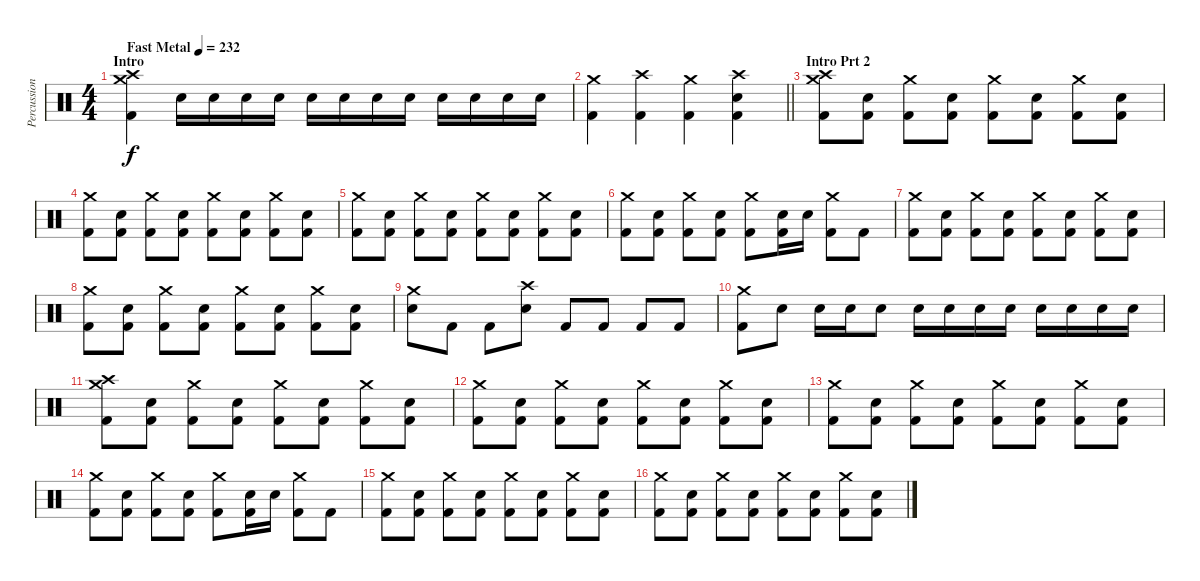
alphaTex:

\track ("Percussion" "Percussion") {instrument percussion}
\staff {score}
\articulation defaults
\ts (4 4)
\section ("" "Intro")
\tempo (232 "Fast Metal")
\clef neutral
\ks c
("Crash medium (hit)" "Crash high (hit)" "Kick (hit) 2").4{dy f} "Electric Snare (hit)".16 "Electric Snare (hit)".16 "Electric Snare (hit)".16 "Electric Snare (hit)".16 "Electric Snare (hit)".16 "Electric Snare (hit)".16 "Electric Snare (hit)".16 "Electric Snare (hit)".16 "Electric Snare (hit)".16 "Electric Snare (hit)".16 "Electric Snare (hit)".16 "Electric Snare (hit)".16 |
\barLineRight lightlight
("Crash medium (hit)" "Kick (hit) 2").4 ("Crash high (hit)" "Kick (hit) 2").4 ("Crash medium (hit)" "Kick (hit) 2").4 ("Crash high (hit)" "Electric Snare (hit)" "Kick (hit) 2").4 |
\section ("" "Intro Prt 2")
("Crash medium (hit)" "Crash high (hit)" "Kick (hit) 2").8 ("Electric Snare (hit)" "Kick (hit) 2").8 ("Crash medium (hit)" "Kick (hit) 2").8 ("Electric Snare (hit)" "Kick (hit) 2").8 ("Crash medium (hit)" "Kick (hit) 2").8 ("Electric Snare (hit)" "Kick (hit) 2").8 ("Crash medium (hit)" "Kick (hit) 2").8 ("Electric Snare (hit)" "Kick (hit) 2").8 |
("Crash medium (hit)" "Kick (hit) 2").8 ("Electric Snare (hit)" "Kick (hit) 2").8 ("Crash medium (hit)" "Kick (hit) 2").8 ("Electric Snare (hit)" "Kick (hit) 2").8 ("Crash medium (hit)" "Kick (hit) 2").8 ("Electric Snare (hit)" "Kick (hit) 2").8 ("Crash medium (hit)" "Kick (hit) 2").8 ("Electric Snare (hit)" "Kick (hit) 2").8 |
("Crash medium (hit)" "Kick (hit) 2").8 ("Electric Snare (hit)" "Kick (hit) 2").8 ("Crash medium (hit)" "Kick (hit) 2").8 ("Electric Snare (hit)" "Kick (hit) 2").8 ("Crash medium (hit)" "Kick (hit) 2").8 ("Electric Snare (hit)" "Kick (hit) 2").8 ("Crash medium (hit)" "Kick (hit) 2").8 ("Electric Snare (hit)" "Kick (hit) 2").8 |
("Crash medium (hit)" "Kick (hit) 2").8 ("Electric Snare (hit)" "Kick (hit) 2").8 ("Crash medium (hit)" "Kick (hit) 2").8 ("Electric Snare (hit)" "Kick (hit) 2").8 ("Crash medium (hit)" "Kick (hit) 2").8 ("Electric Snare (hit)" "Kick (hit) 2").16 "Electric Snare (hit)".16 ("Crash medium (hit)" "Kick (hit) 2").8 "Kick (hit) 2".8 |
("Crash medium (hit)" "Kick (hit) 2").8 ("Electric Snare (hit)" "Kick (hit) 2").8 ("Crash medium (hit)" "Kick (hit) 2").8 ("Electric Snare (hit)" "Kick (hit) 2").8 ("Crash medium (hit)" "Kick (hit) 2").8 ("Electric Snare (hit)" "Kick (hit) 2").8 ("Crash medium (hit)" "Kick (hit) 2").8 ("Electric Snare (hit)" "Kick (hit) 2").8 |
("Crash medium (hit)" "Kick (hit) 2").8 ("Electric Snare (hit)" "Kick (hit) 2").8 ("Crash medium (hit)" "Kick (hit) 2").8 ("Electric Snare (hit)" "Kick (hit) 2").8 ("Crash medium (hit)" "Kick (hit) 2").8 ("Electric Snare (hit)" "Kick (hit) 2").8 ("Crash medium (hit)" "Kick (hit) 2").8 ("Electric Snare (hit)" "Kick (hit) 2").8 |
("Crash medium (hit)" "Electric Snare (hit)").8 "Kick (hit) 2".8 "Kick (hit) 2".8 ("Crash high (hit)" "Electric Snare (hit)").8 "Kick (hit) 2".8 "Kick (hit) 2".8 "Kick (hit) 2".8 "Kick (hit) 2".8 |
("Crash medium (hit)" "Kick (hit) 2").8 "Electric Snare (hit)".8 "Electric Snare (hit)".16 "Electric Snare (hit)".16 "Electric Snare (hit)".8 "Electric Snare (hit)".16 "Electric Snare (hit)".16 "Electric Snare (hit)".16 "Electric Snare (hit)".16 "Electric Snare (hit)".16 "Electric Snare (hit)".16 "Electric Snare (hit)".16 "Electric Snare (hit)".16 |
("Crash medium (hit)" "Crash high (hit)" "Kick (hit) 2").8 ("Electric Snare (hit)" "Kick (hit) 2").8 ("Crash medium (hit)" "Kick (hit) 2").8 ("Electric Snare (hit)" "Kick (hit) 2").8 ("Crash medium (hit)" "Kick (hit) 2").8 ("Electric Snare (hit)" "Kick (hit) 2").8 ("Crash medium (hit)" "Kick (hit) 2").8 ("Electric Snare (hit)" "Kick (hit) 2").8 |
("Crash medium (hit)" "Kick (hit) 2").8 ("Electric Snare (hit)" "Kick (hit) 2").8 ("Crash medium (hit)" "Kick (hit) 2").8 ("Electric Snare (hit)" "Kick (hit) 2").8 ("Crash medium (hit)" "Kick (hit) 2").8 ("Electric Snare (hit)" "Kick (hit) 2").8 ("Crash medium (hit)" "Kick (hit) 2").8 ("Electric Snare (hit)" "Kick (hit) 2").8 |
("Crash medium (hit)" "Kick (hit) 2").8 ("Electric Snare (hit)" "Kick (hit) 2").8 ("Crash medium (hit)" "Kick (hit) 2").8 ("Electric Snare (hit)" "Kick (hit) 2").8 ("Crash medium (hit)" "Kick (hit) 2").8 ("Electric Snare (hit)" "Kick (hit) 2").8 ("Crash medium (hit)" "Kick (hit) 2").8 ("Electric Snare (hit)" "Kick (hit) 2").8 |
("Crash medium (hit)" "Kick (hit) 2").8 ("Electric Snare (hit)" "Kick (hit) 2").8 ("Crash medium (hit)" "Kick (hit) 2").8 ("Electric Snare (hit)" "Kick (hit) 2").8 ("Crash medium (hit)" "Kick (hit) 2").8 ("Electric Snare (hit)" "Kick (hit) 2").16 "Electric Snare (hit)".16 ("Crash medium (hit)" "Kick (hit) 2").8 "Kick (hit) 2".8 |
("Crash medium (hit)" "Kick (hit) 2").8 ("Electric Snare (hit)" "Kick (hit) 2").8 ("Crash medium (hit)" "Kick (hit) 2").8 ("Electric Snare (hit)" "Kick (hit) 2").8 ("Crash medium (hit)" "Kick (hit) 2").8 ("Electric Snare (hit)" "Kick (hit) 2").8 ("Crash medium (hit)" "Kick (hit) 2").8 ("Electric Snare (hit)" "Kick (hit) 2").8 |
("Crash medium (hit)" "Kick (hit) 2").8 ("Electric Snare (hit)" "Kick (hit) 2").8 ("Crash medium (hit)" "Kick (hit) 2").8 ("Electric Snare (hit)" "Kick (hit) 2").8 ("Crash medium (hit)" "Kick (hit) 2").8 ("Electric Snare (hit)" "Kick (hit) 2").8 ("Crash medium (hit)" "Kick (hit) 2").8 ("Electric Snare (hit)" "Kick (hit) 2").8
